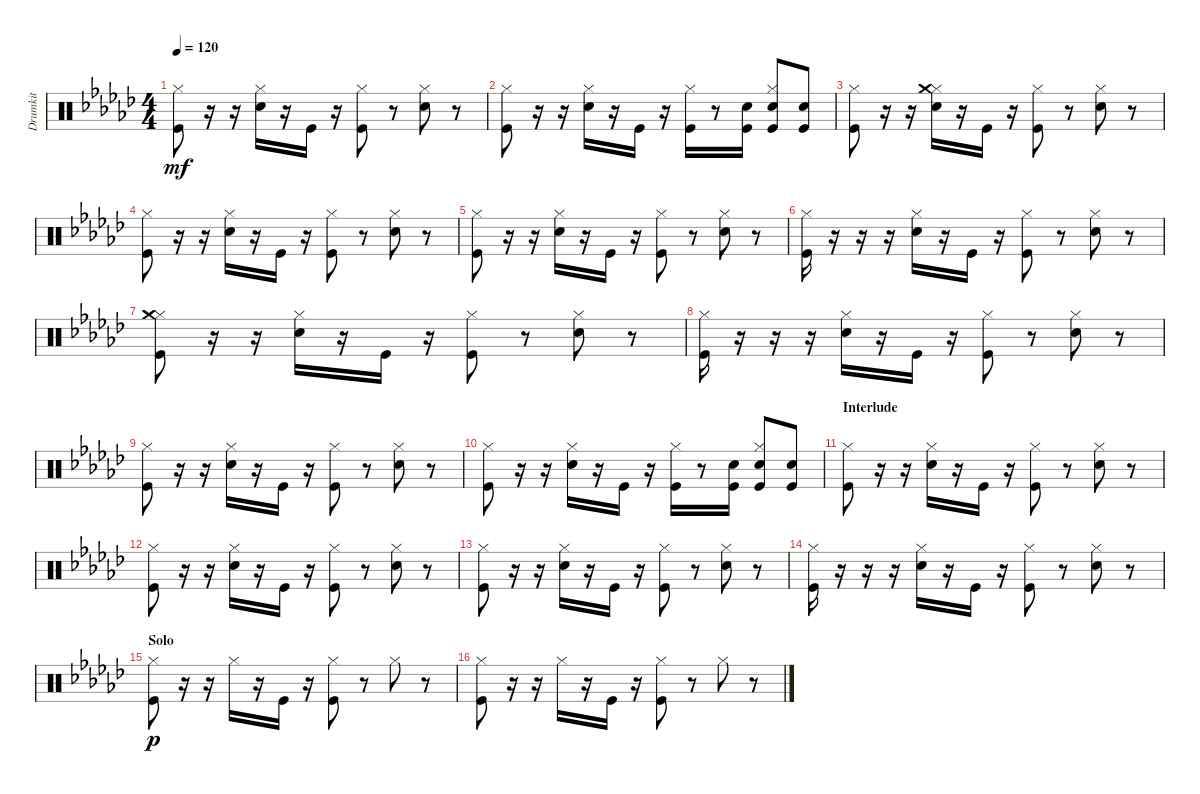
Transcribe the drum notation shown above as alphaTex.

\track ("Drumkit" "Drumkit") {instrument percussion}
\staff {score}
\articulation defaults
\ts (4 4)
\tempo 120
\clef neutral
\ks ebminor
("Kick (hit)" "Hi-Hat (closed)").8{dy mf} r.16 r.16 ("Snare (hit) 2" "Hi-Hat (closed)").16 r.16 "Kick (hit)".16 r.16 ("Kick (hit)" "Hi-Hat (closed)").8 r.8 ("Snare (hit) 2" "Hi-Hat (closed)").8 r.8 |
("Kick (hit)" "Hi-Hat (closed)").8 r.16 r.16 ("Snare (hit) 2" "Hi-Hat (closed)").16 r.16 "Kick (hit)".16 r.16 ("Kick (hit)" "Hi-Hat (closed)").16 r.8 ("Snare (hit) 2" "Kick (hit)").16 ("Snare (hit) 2" "Hi-Hat (closed)" "Kick (hit)").8 ("Snare (hit) 2" "Kick (hit)").8 |
("Kick (hit)" "Hi-Hat (closed)").8 r.16 r.16 ("Snare (hit) 2" "Hi-Hat (closed)" "Crash medium (hit)").16 r.16 "Kick (hit)".16 r.16 ("Kick (hit)" "Hi-Hat (closed)").8 r.8 ("Snare (hit) 2" "Hi-Hat (closed)").8 r.8 |
("Kick (hit)" "Hi-Hat (closed)").8 r.16 r.16 ("Snare (hit) 2" "Hi-Hat (closed)").16 r.16 "Kick (hit)".16 r.16 ("Kick (hit)" "Hi-Hat (closed)").8 r.8 ("Snare (hit) 2" "Hi-Hat (closed)").8 r.8 |
("Kick (hit)" "Hi-Hat (closed)").8 r.16 r.16 ("Snare (hit) 2" "Hi-Hat (closed)").16 r.16 "Kick (hit)".16 r.16 ("Kick (hit)" "Hi-Hat (closed)").8 r.8 ("Snare (hit) 2" "Hi-Hat (closed)").8 r.8 |
("Kick (hit)" "Hi-Hat (closed)").16 r.16 r.16 r.16 ("Snare (hit) 2" "Hi-Hat (closed)").16 r.16 "Kick (hit)".16 r.16 ("Kick (hit)" "Hi-Hat (closed)").8 r.8 ("Snare (hit) 2" "Hi-Hat (closed)").8 r.8 |
("Kick (hit)" "Hi-Hat (closed)" "Crash medium (hit)").8 r.16 r.16 ("Snare (hit) 2" "Hi-Hat (closed)").16 r.16 "Kick (hit)".16 r.16 ("Kick (hit)" "Hi-Hat (closed)").8 r.8 ("Snare (hit) 2" "Hi-Hat (closed)").8 r.8 |
("Kick (hit)" "Hi-Hat (closed)").16 r.16 r.16 r.16 ("Snare (hit) 2" "Hi-Hat (closed)").16 r.16 "Kick (hit)".16 r.16 ("Kick (hit)" "Hi-Hat (closed)").8 r.8 ("Snare (hit) 2" "Hi-Hat (closed)").8 r.8 |
("Kick (hit)" "Hi-Hat (closed)").8 r.16 r.16 ("Snare (hit) 2" "Hi-Hat (closed)").16 r.16 "Kick (hit)".16 r.16 ("Kick (hit)" "Hi-Hat (closed)").8 r.8 ("Snare (hit) 2" "Hi-Hat (closed)").8 r.8 |
("Kick (hit)" "Hi-Hat (closed)").8 r.16 r.16 ("Snare (hit) 2" "Hi-Hat (closed)").16 r.16 "Kick (hit)".16 r.16 ("Kick (hit)" "Hi-Hat (closed)").16 r.8 ("Snare (hit) 2" "Kick (hit)").16 ("Snare (hit) 2" "Hi-Hat (closed)" "Kick (hit)").8 ("Snare (hit) 2" "Kick (hit)").8 |
\section ("" "Interlude")
("Kick (hit)" "Hi-Hat (closed)").8 r.16 r.16 ("Snare (hit) 2" "Hi-Hat (closed)").16 r.16 "Kick (hit)".16 r.16 ("Kick (hit)" "Hi-Hat (closed)").8 r.8 ("Snare (hit) 2" "Hi-Hat (closed)").8 r.8 |
("Kick (hit)" "Hi-Hat (closed)").8 r.16 r.16 ("Snare (hit) 2" "Hi-Hat (closed)").16 r.16 "Kick (hit)".16 r.16 ("Kick (hit)" "Hi-Hat (closed)").8 r.8 ("Snare (hit) 2" "Hi-Hat (closed)").8 r.8 |
("Kick (hit)" "Hi-Hat (closed)").8 r.16 r.16 ("Snare (hit) 2" "Hi-Hat (closed)").16 r.16 "Kick (hit)".16 r.16 ("Kick (hit)" "Hi-Hat (closed)").8 r.8 ("Snare (hit) 2" "Hi-Hat (closed)").8 r.8 |
("Kick (hit)" "Hi-Hat (closed)").16 r.16 r.16 r.16 ("Snare (hit) 2" "Hi-Hat (closed)").16 r.16 "Kick (hit)".16 r.16 ("Kick (hit)" "Hi-Hat (closed)").8 r.8 ("Snare (hit) 2" "Hi-Hat (closed)").8 r.8 |
\section ("" "Solo")
("Kick (hit)" "Hi-Hat (closed)").8{dy p} r.16 r.16 "Hi-Hat (closed)".16 r.16 "Kick (hit)".16 r.16 ("Kick (hit)" "Hi-Hat (closed)").8 r.8 "Hi-Hat (closed)".8 r.8 |
("Kick (hit)" "Hi-Hat (closed)").8 r.16 r.16 "Hi-Hat (closed)".16 r.16 "Kick (hit)".16 r.16 ("Kick (hit)" "Hi-Hat (closed)").8 r.8 "Hi-Hat (closed)".8 r.8
